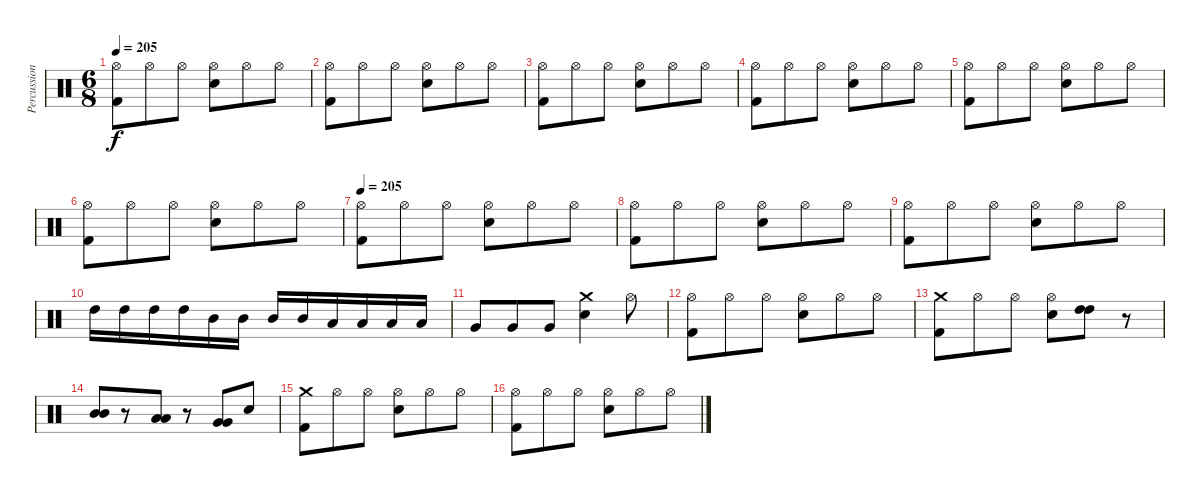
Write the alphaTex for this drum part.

\track ("Percussion" "Percussion") {instrument percussion}
\staff {score}
\articulation defaults
\ts (6 8)
\tempo 205
\clef neutral
\ks c
("Hi-Hat (open)" "Kick (hit) 2").8{dy f} "Hi-Hat (open)".8 "Hi-Hat (open)".8 ("Hi-Hat (open)" "Electric Snare (hit)").8 "Hi-Hat (open)".8 "Hi-Hat (open)".8 |
("Hi-Hat (open)" "Kick (hit) 2").8 "Hi-Hat (open)".8 "Hi-Hat (open)".8 ("Hi-Hat (open)" "Electric Snare (hit)").8 "Hi-Hat (open)".8 "Hi-Hat (open)".8 |
("Hi-Hat (open)" "Kick (hit) 2").8 "Hi-Hat (open)".8 "Hi-Hat (open)".8 ("Hi-Hat (open)" "Electric Snare (hit)").8 "Hi-Hat (open)".8 "Hi-Hat (open)".8 |
("Hi-Hat (open)" "Kick (hit) 2").8 "Hi-Hat (open)".8 "Hi-Hat (open)".8 ("Hi-Hat (open)" "Electric Snare (hit)").8 "Hi-Hat (open)".8 "Hi-Hat (open)".8 |
("Hi-Hat (open)" "Kick (hit) 2").8 "Hi-Hat (open)".8 "Hi-Hat (open)".8 ("Hi-Hat (open)" "Electric Snare (hit)").8 "Hi-Hat (open)".8 "Hi-Hat (open)".8 |
("Hi-Hat (open)" "Kick (hit) 2").8 "Hi-Hat (open)".8 "Hi-Hat (open)".8 ("Hi-Hat (open)" "Electric Snare (hit)").8 "Hi-Hat (open)".8 "Hi-Hat (open)".8 |
\tempo 205
("Hi-Hat (open)" "Kick (hit) 2").8 "Hi-Hat (open)".8 "Hi-Hat (open)".8 ("Hi-Hat (open)" "Electric Snare (hit)").8 "Hi-Hat (open)".8 "Hi-Hat (open)".8 |
("Hi-Hat (open)" "Kick (hit) 2").8 "Hi-Hat (open)".8 "Hi-Hat (open)".8 ("Hi-Hat (open)" "Electric Snare (hit)").8 "Hi-Hat (open)".8 "Hi-Hat (open)".8 |
("Hi-Hat (open)" "Kick (hit) 2").8 "Hi-Hat (open)".8 "Hi-Hat (open)".8 ("Hi-Hat (open)" "Electric Snare (hit)").8 "Hi-Hat (open)".8 "Hi-Hat (open)".8 |
"High Tom (hit)".16 "High Tom (hit)".16 "High Tom (hit)".16 "High Tom (hit)".16 "Mid Tom (hit)".16 "Mid Tom (hit)".16 "Mid Tom (hit)".16 "Mid Tom (hit)".16 "Low Tom (hit)".16 "Low Tom (hit)".16 "Low Tom (hit)".16 "Low Tom (hit)".16 |
"Very Low Tom (hit)".8 "Very Low Tom (hit)".8 "Very Low Tom (hit)".8 ("Crash medium (hit)" "Electric Snare (hit)").4 "Hi-Hat (open)".8 |
("Hi-Hat (open)" "Kick (hit) 2").8 "Hi-Hat (open)".8 "Hi-Hat (open)".8 ("Hi-Hat (open)" "Electric Snare (hit)").8 "Hi-Hat (open)".8 "Hi-Hat (open)".8 |
("Crash medium (hit)" "Kick (hit) 2").8 "Hi-Hat (open)".8 "Hi-Hat (open)".8 ("Hi-Hat (open)" "Electric Snare (hit)").8 ("High Tom (hit)" "High Tom (hit)").8 r.8 |
("Mid Tom (hit)" "Mid Tom (hit)").8 r.8 ("Low Tom (hit)" "Low Tom (hit)").8 r.8 ("Very Low Tom (hit)" "Very Low Tom (hit)").8 "Electric Snare (hit)".8 |
("Crash medium (hit)" "Kick (hit) 2").8 "Hi-Hat (open)".8 "Hi-Hat (open)".8 ("Hi-Hat (open)" "Electric Snare (hit)").8 "Hi-Hat (open)".8 "Hi-Hat (open)".8 |
("Hi-Hat (open)" "Kick (hit) 2").8 "Hi-Hat (open)".8 "Hi-Hat (open)".8 ("Hi-Hat (open)" "Electric Snare (hit)").8 "Hi-Hat (open)".8 "Hi-Hat (open)".8
